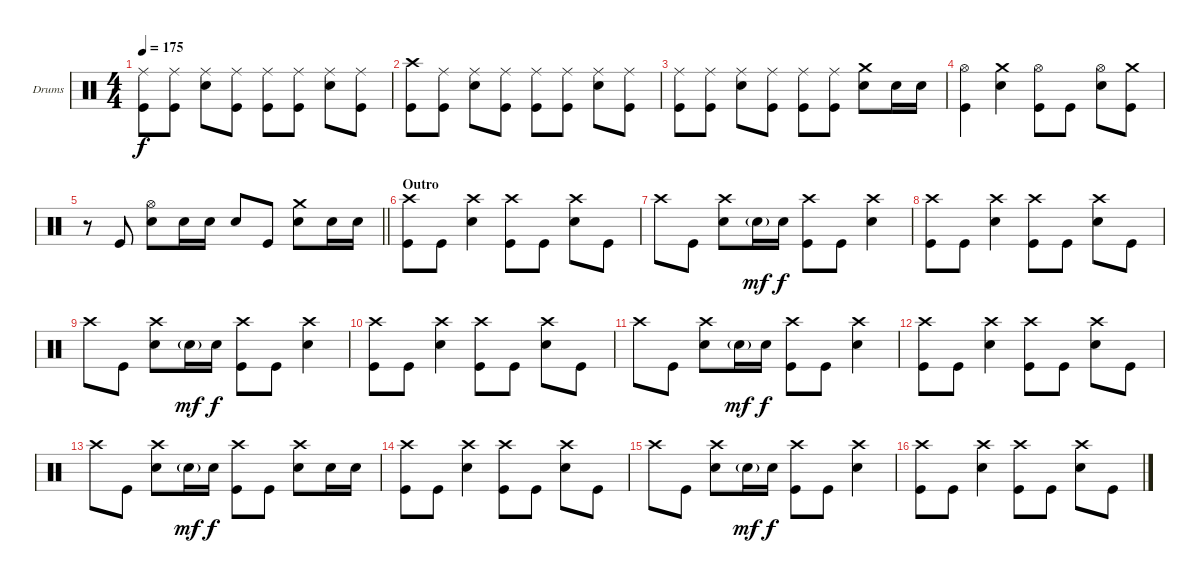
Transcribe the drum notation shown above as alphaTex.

\bracketExtendMode groupsimilarinstruments
\firstSystemTrackNameOrientation horizontal
\otherSystemsTrackNameOrientation horizontal
\track ("Drumkit" "Drums") {instrument percussion}
\staff {score}
\articulation defaults
\ts (4 4)
\tempo 175
\clef neutral
\ks c
("Ride (middle)" "Kick (hit)").8{dy f} ("Ride (middle)" "Kick (hit)").8 ("Ride (middle)" "Snare (hit) 2").8 ("Ride (middle)" "Kick (hit)").8 ("Ride (middle)" "Kick (hit)").8 ("Ride (middle)" "Kick (hit)").8 ("Ride (middle)" "Snare (hit) 2").8 ("Ride (middle)" "Kick (hit)").8 |
("Crash high (hit)" "Kick (hit)").8 ("Ride (middle)" "Kick (hit)").8 ("Ride (middle)" "Snare (hit) 2").8 ("Ride (middle)" "Kick (hit)").8 ("Ride (middle)" "Kick (hit)").8 ("Ride (middle)" "Kick (hit)").8 ("Ride (middle)" "Snare (hit) 2").8 ("Ride (middle)" "Kick (hit)").8 |
("Ride (middle)" "Kick (hit)").8 ("Ride (middle)" "Kick (hit)").8 ("Ride (middle)" "Snare (hit) 2").8 ("Ride (middle)" "Kick (hit)").8 ("Ride (middle)" "Kick (hit)").8 ("Ride (middle)" "Kick (hit)").8 ("Crash medium (hit)" "Snare (hit) 2").8 "Snare (hit) 2".16 "Snare (hit) 2".16 |
("Hi-Hat (open)" "Kick (hit)").4 ("Crash medium (hit)" "Snare (hit) 2").4 ("Hi-Hat (open)" "Kick (hit)").8 "Kick (hit)".8 ("Hi-Hat (open)" "Snare (hit) 2").8 ("Crash medium (hit)" "Kick (hit)").8 |
\barLineRight lightlight
r.8 "Kick (hit)".8 ("Hi-Hat (open)" "Snare (hit) 2").8 "Snare (hit) 2".16 "Snare (hit) 2".16 "Snare (hit) 2".8 "Kick (hit)".8 ("Crash medium (hit)" "Snare (hit) 2").8 "Snare (hit) 2".16 "Snare (hit) 2".16 |
\section ("" "Outro")
("Crash high (hit)" "Kick (hit)").8 "Kick (hit)".8 ("Crash high (hit)" "Snare (hit) 2").4 ("Crash high (hit)" "Kick (hit)").8 "Kick (hit)".8 ("Crash high (hit)" "Snare (hit) 2").8 "Kick (hit)".8 |
"Crash high (hit)".8 "Kick (hit)".8 ("Crash high (hit)" "Snare (hit) 2").8 "Snare (hit) 2"{g}.16{dy mf} "Snare (hit) 2".16{dy f} ("Crash high (hit)" "Kick (hit)").8 "Kick (hit)".8 ("Crash high (hit)" "Snare (hit) 2").4 |
("Crash high (hit)" "Kick (hit)").8 "Kick (hit)".8 ("Crash high (hit)" "Snare (hit) 2").4 ("Crash high (hit)" "Kick (hit)").8 "Kick (hit)".8 ("Crash high (hit)" "Snare (hit) 2").8 "Kick (hit)".8 |
"Crash high (hit)".8 "Kick (hit)".8 ("Crash high (hit)" "Snare (hit) 2").8 "Snare (hit) 2"{g}.16{dy mf} "Snare (hit) 2".16{dy f} ("Crash high (hit)" "Kick (hit)").8 "Kick (hit)".8 ("Crash high (hit)" "Snare (hit) 2").4 |
("Crash high (hit)" "Kick (hit)").8 "Kick (hit)".8 ("Crash high (hit)" "Snare (hit) 2").4 ("Crash high (hit)" "Kick (hit)").8 "Kick (hit)".8 ("Crash high (hit)" "Snare (hit) 2").8 "Kick (hit)".8 |
"Crash high (hit)".8 "Kick (hit)".8 ("Crash high (hit)" "Snare (hit) 2").8 "Snare (hit) 2"{g}.16{dy mf} "Snare (hit) 2".16{dy f} ("Crash high (hit)" "Kick (hit)").8 "Kick (hit)".8 ("Crash high (hit)" "Snare (hit) 2").4 |
("Crash high (hit)" "Kick (hit)").8 "Kick (hit)".8 ("Crash high (hit)" "Snare (hit) 2").4 ("Crash high (hit)" "Kick (hit)").8 "Kick (hit)".8 ("Crash high (hit)" "Snare (hit) 2").8 "Kick (hit)".8 |
"Crash high (hit)".8 "Kick (hit)".8 ("Crash high (hit)" "Snare (hit) 2").8 "Snare (hit) 2"{g}.16{dy mf} "Snare (hit) 2".16{dy f} ("Crash high (hit)" "Kick (hit)").8 "Kick (hit)".8 ("Crash high (hit)" "Snare (hit) 2").8 "Snare (hit) 2".16 "Snare (hit) 2".16 |
("Crash high (hit)" "Kick (hit)").8 "Kick (hit)".8 ("Crash high (hit)" "Snare (hit) 2").4 ("Crash high (hit)" "Kick (hit)").8 "Kick (hit)".8 ("Crash high (hit)" "Snare (hit) 2").8 "Kick (hit)".8 |
"Crash high (hit)".8 "Kick (hit)".8 ("Crash high (hit)" "Snare (hit) 2").8 "Snare (hit) 2"{g}.16{dy mf} "Snare (hit) 2".16{dy f} ("Crash high (hit)" "Kick (hit)").8 "Kick (hit)".8 ("Crash high (hit)" "Snare (hit) 2").4 |
("Crash high (hit)" "Kick (hit)").8 "Kick (hit)".8 ("Crash high (hit)" "Snare (hit) 2").4 ("Crash high (hit)" "Kick (hit)").8 "Kick (hit)".8 ("Crash high (hit)" "Snare (hit) 2").8 "Kick (hit)".8
